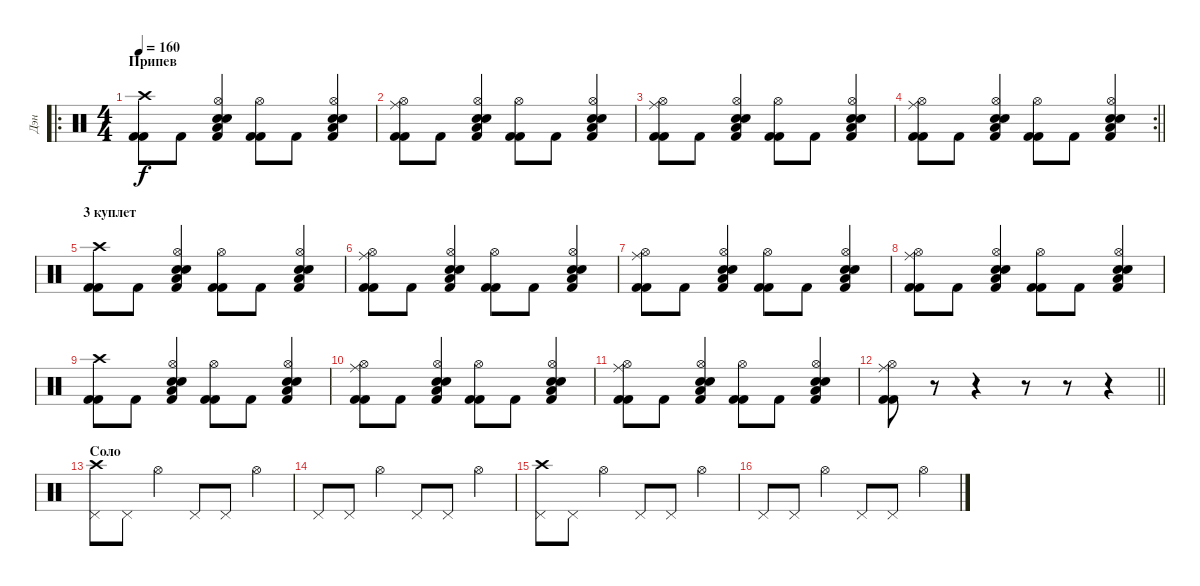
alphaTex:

\track ("Дэн" "Дэн") {instrument percussion}
\staff {score}
\articulation defaults
\ro
\ts (4 4)
\section ("" "Припев")
\tempo 160
\clef neutral
\ks c
("Crash high (hit)" "Kick (hit) 2" "Kick (hit) 2").8{dy f} "Kick (hit) 2".8 ("Hi-Hat (open)" "Low Tom (hit)" "Electric Snare (hit)" "Kick (hit) 2" "Electric Snare (hit)").4 ("Hi-Hat (open)" "Kick (hit) 2" "Kick (hit) 2").8 "Kick (hit) 2".8 ("Hi-Hat (open)" "Low Tom (hit)" "Electric Snare (hit)" "Kick (hit) 2" "Electric Snare (hit)").4 |
("Ride (middle)" "Hi-Hat (open)" "Kick (hit) 2" "Kick (hit) 2").8 "Kick (hit) 2".8 ("Hi-Hat (open)" "Low Tom (hit)" "Electric Snare (hit)" "Kick (hit) 2" "Electric Snare (hit)").4 ("Hi-Hat (open)" "Kick (hit) 2" "Kick (hit) 2").8 "Kick (hit) 2".8 ("Hi-Hat (open)" "Low Tom (hit)" "Electric Snare (hit)" "Kick (hit) 2" "Electric Snare (hit)").4 |
("Ride (middle)" "Hi-Hat (open)" "Kick (hit) 2" "Kick (hit) 2").8 "Kick (hit) 2".8 ("Hi-Hat (open)" "Low Tom (hit)" "Electric Snare (hit)" "Kick (hit) 2" "Electric Snare (hit)").4 ("Hi-Hat (open)" "Kick (hit) 2" "Kick (hit) 2").8 "Kick (hit) 2".8 ("Hi-Hat (open)" "Low Tom (hit)" "Electric Snare (hit)" "Kick (hit) 2" "Electric Snare (hit)").4 |
\rc 2
\barLineRight lightlight
("Ride (middle)" "Hi-Hat (open)" "Kick (hit) 2" "Kick (hit) 2").8 "Kick (hit) 2".8 ("Hi-Hat (open)" "Low Tom (hit)" "Electric Snare (hit)" "Kick (hit) 2" "Electric Snare (hit)").4 ("Hi-Hat (open)" "Kick (hit) 2" "Kick (hit) 2").8 "Kick (hit) 2".8 ("Hi-Hat (open)" "Low Tom (hit)" "Electric Snare (hit)" "Kick (hit) 2" "Electric Snare (hit)").4 |
\section ("" "3 куплет")
("Crash high (hit)" "Kick (hit) 2" "Kick (hit) 2").8 "Kick (hit) 2".8 ("Hi-Hat (open)" "Low Tom (hit)" "Electric Snare (hit)" "Kick (hit) 2" "Electric Snare (hit)").4 ("Hi-Hat (open)" "Kick (hit) 2" "Kick (hit) 2").8 "Kick (hit) 2".8 ("Hi-Hat (open)" "Low Tom (hit)" "Electric Snare (hit)" "Kick (hit) 2" "Electric Snare (hit)").4 |
("Ride (middle)" "Hi-Hat (open)" "Kick (hit) 2" "Kick (hit) 2").8 "Kick (hit) 2".8 ("Hi-Hat (open)" "Low Tom (hit)" "Electric Snare (hit)" "Kick (hit) 2" "Electric Snare (hit)").4 ("Hi-Hat (open)" "Kick (hit) 2" "Kick (hit) 2").8 "Kick (hit) 2".8 ("Hi-Hat (open)" "Low Tom (hit)" "Electric Snare (hit)" "Kick (hit) 2" "Electric Snare (hit)").4 |
("Ride (middle)" "Hi-Hat (open)" "Kick (hit) 2" "Kick (hit) 2").8 "Kick (hit) 2".8 ("Hi-Hat (open)" "Low Tom (hit)" "Electric Snare (hit)" "Kick (hit) 2" "Electric Snare (hit)").4 ("Hi-Hat (open)" "Kick (hit) 2" "Kick (hit) 2").8 "Kick (hit) 2".8 ("Hi-Hat (open)" "Low Tom (hit)" "Electric Snare (hit)" "Kick (hit) 2" "Electric Snare (hit)").4 |
("Ride (middle)" "Hi-Hat (open)" "Kick (hit) 2" "Kick (hit) 2").8 "Kick (hit) 2".8 ("Hi-Hat (open)" "Low Tom (hit)" "Electric Snare (hit)" "Kick (hit) 2" "Electric Snare (hit)").4 ("Hi-Hat (open)" "Kick (hit) 2" "Kick (hit) 2").8 "Kick (hit) 2".8 ("Hi-Hat (open)" "Low Tom (hit)" "Electric Snare (hit)" "Kick (hit) 2" "Electric Snare (hit)").4 |
("Crash high (hit)" "Kick (hit) 2" "Kick (hit) 2").8 "Kick (hit) 2".8 ("Hi-Hat (open)" "Low Tom (hit)" "Electric Snare (hit)" "Kick (hit) 2" "Electric Snare (hit)").4 ("Hi-Hat (open)" "Kick (hit) 2" "Kick (hit) 2").8 "Kick (hit) 2".8 ("Hi-Hat (open)" "Low Tom (hit)" "Electric Snare (hit)" "Kick (hit) 2" "Electric Snare (hit)").4 |
("Ride (middle)" "Hi-Hat (open)" "Kick (hit) 2" "Kick (hit) 2").8 "Kick (hit) 2".8 ("Hi-Hat (open)" "Low Tom (hit)" "Electric Snare (hit)" "Kick (hit) 2" "Electric Snare (hit)").4 ("Hi-Hat (open)" "Kick (hit) 2" "Kick (hit) 2").8 "Kick (hit) 2".8 ("Hi-Hat (open)" "Low Tom (hit)" "Electric Snare (hit)" "Kick (hit) 2" "Electric Snare (hit)").4 |
("Ride (middle)" "Hi-Hat (open)" "Kick (hit) 2" "Kick (hit) 2").8 "Kick (hit) 2".8 ("Hi-Hat (open)" "Low Tom (hit)" "Electric Snare (hit)" "Kick (hit) 2" "Electric Snare (hit)").4 ("Hi-Hat (open)" "Kick (hit) 2" "Kick (hit) 2").8 "Kick (hit) 2".8 ("Hi-Hat (open)" "Low Tom (hit)" "Electric Snare (hit)" "Kick (hit) 2" "Electric Snare (hit)").4 |
\barLineRight lightlight
("Ride (middle)" "Hi-Hat (open)" "Kick (hit) 2" "Kick (hit) 2").8 r.8 r.4 r.8 r.8 r.4 |
\section ("" "Соло")
("Crash high (hit)" "Pedal Hi-Hat (hit)").8 "Pedal Hi-Hat (hit)".8 "Hi-Hat (open)".4 "Pedal Hi-Hat (hit)".8 "Pedal Hi-Hat (hit)".8 "Hi-Hat (open)".4 |
"Pedal Hi-Hat (hit)".8 "Pedal Hi-Hat (hit)".8 "Hi-Hat (open)".4 "Pedal Hi-Hat (hit)".8 "Pedal Hi-Hat (hit)".8 "Hi-Hat (open)".4 |
("Crash high (hit)" "Pedal Hi-Hat (hit)").8 "Pedal Hi-Hat (hit)".8 "Hi-Hat (open)".4 "Pedal Hi-Hat (hit)".8 "Pedal Hi-Hat (hit)".8 "Hi-Hat (open)".4 |
"Pedal Hi-Hat (hit)".8 "Pedal Hi-Hat (hit)".8 "Hi-Hat (open)".4 "Pedal Hi-Hat (hit)".8 "Pedal Hi-Hat (hit)".8 "Hi-Hat (open)".4
